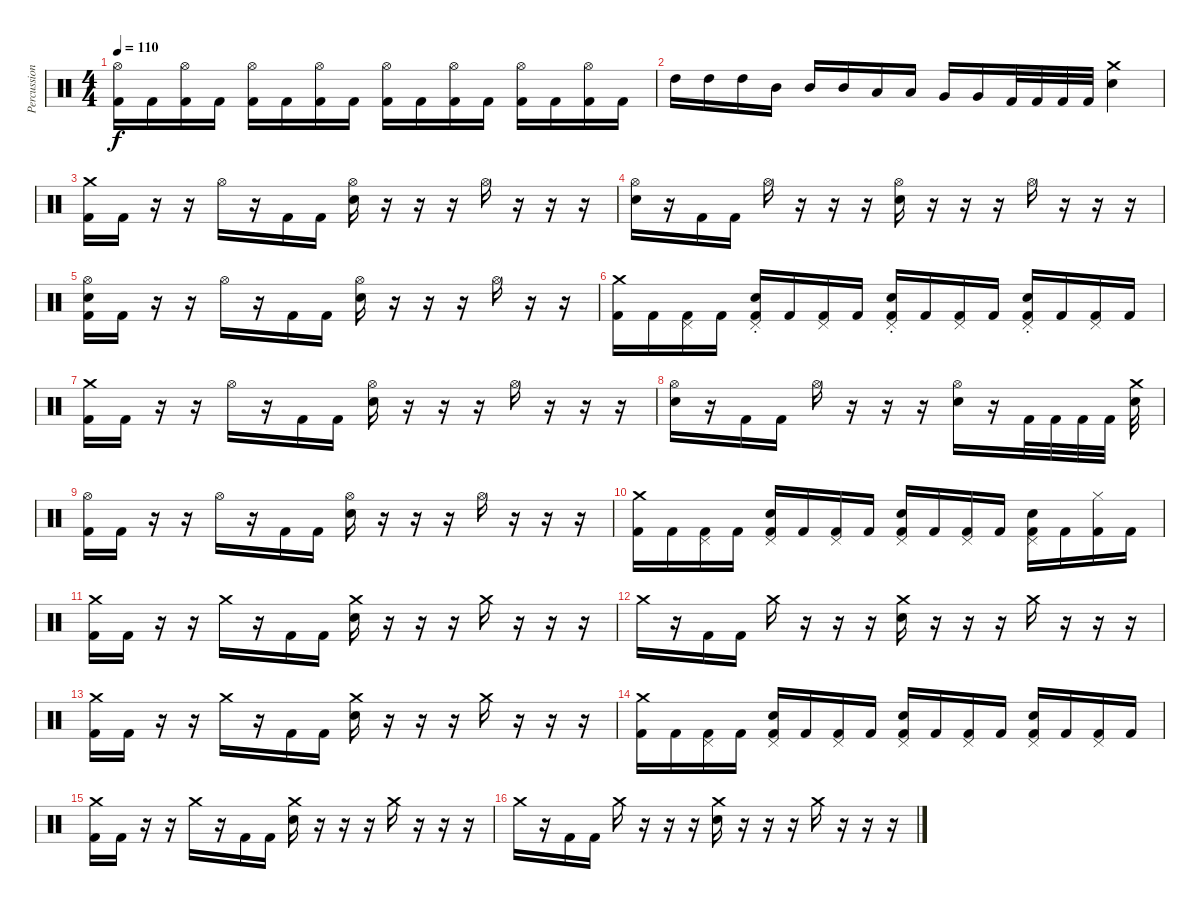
\track ("Percussion (Moose)" "Percussion") {instrument percussion}
\staff {score}
\articulation defaults
\ts (4 4)
\tempo 110
\clef neutral
\ks c
("Hi-Hat (open)" "Kick (hit) 2").16{dy f} "Kick (hit) 2".16 ("Hi-Hat (open)" "Kick (hit) 2").16 "Kick (hit) 2".16 ("Hi-Hat (open)" "Kick (hit) 2").16 "Kick (hit) 2".16 ("Hi-Hat (open)" "Kick (hit) 2").16 "Kick (hit) 2".16 ("Hi-Hat (open)" "Kick (hit) 2").16 "Kick (hit) 2".16 ("Hi-Hat (open)" "Kick (hit) 2").16 "Kick (hit) 2".16 ("Hi-Hat (open)" "Kick (hit) 2").16 "Kick (hit) 2".16 ("Hi-Hat (open)" "Kick (hit) 2").16 "Kick (hit) 2".16 |
"High Tom (hit)".16 "High Tom (hit)".16 "High Tom (hit)".16 "Mid Tom (hit)".16 "Mid Tom (hit)".16 "Mid Tom (hit)".16 "Low Tom (hit)".16 "Low Tom (hit)".16 "Very Low Tom (hit)".16 "Very Low Tom (hit)".16 "Kick (hit) 2".32 "Kick (hit) 2".32 "Kick (hit) 2".32 "Kick (hit) 2".32 ("Crash medium (hit)" "Electric Snare (hit)").4 |
("Crash medium (hit)" "Kick (hit) 2").16 "Kick (hit) 2".16 r.16 r.16 "Hi-Hat (open)".16 r.16 "Kick (hit) 2".16 "Kick (hit) 2".16 ("Hi-Hat (open)" "Electric Snare (hit)").16 r.16 r.16 r.16 "Hi-Hat (open)".16 r.16 r.16 r.16 |
("Hi-Hat (open)" "Electric Snare (hit)").16 r.16 "Kick (hit) 2".16 "Kick (hit) 2".16 "Hi-Hat (open)".16 r.16 r.16 r.16 ("Hi-Hat (open)" "Electric Snare (hit)").16 r.16 r.16 r.16 "Hi-Hat (open)".16 r.16 r.16 r.16 |
("Hi-Hat (open)" "Electric Snare (hit)" "Kick (hit) 2").16 "Kick (hit) 2".16 r.16 r.16 "Hi-Hat (open)".16 r.16 "Kick (hit) 2".16 "Kick (hit) 2".16 ("Hi-Hat (open)" "Electric Snare (hit)").16 r.16 r.16 r.16 "Hi-Hat (open)".16 r.16 r.16 |
("Crash medium (hit)" "Kick (hit) 2").16 "Kick (hit) 2".16 ("Pedal Hi-Hat (hit)" "Kick (hit) 2").16 "Kick (hit) 2".16 ("Pedal Hi-Hat (hit)"{st} "Electric Snare (hit)" "Kick (hit) 2").16 "Kick (hit) 2".16 ("Pedal Hi-Hat (hit)" "Kick (hit) 2").16 "Kick (hit) 2".16 ("Pedal Hi-Hat (hit)"{st} "Electric Snare (hit)" "Kick (hit) 2").16 "Kick (hit) 2".16 ("Pedal Hi-Hat (hit)" "Kick (hit) 2").16 "Kick (hit) 2".16 ("Pedal Hi-Hat (hit)"{st} "Electric Snare (hit)" "Kick (hit) 2").16 "Kick (hit) 2".16 ("Pedal Hi-Hat (hit)" "Kick (hit) 2").16 "Kick (hit) 2".16 |
("Crash medium (hit)" "Kick (hit) 2").16 "Kick (hit) 2".16 r.16 r.16 "Hi-Hat (open)".16 r.16 "Kick (hit) 2".16 "Kick (hit) 2".16 ("Hi-Hat (open)" "Electric Snare (hit)").16 r.16 r.16 r.16 "Hi-Hat (open)".16 r.16 r.16 r.16 |
("Hi-Hat (open)" "Electric Snare (hit)").16 r.16 "Kick (hit) 2".16 "Kick (hit) 2".16 "Hi-Hat (open)".16 r.16 r.16 r.16 ("Hi-Hat (open)" "Electric Snare (hit)").16 r.16 "Kick (hit) 2".32 "Kick (hit) 2".32 "Kick (hit) 2".32 "Kick (hit) 2".32 ("Crash medium (hit)" "Electric Snare (hit)").32 |
("Hi-Hat (open)" "Kick (hit) 2").16 "Kick (hit) 2".16 r.16 r.16 "Hi-Hat (open)".16 r.16 "Kick (hit) 2".16 "Kick (hit) 2".16 ("Hi-Hat (open)" "Electric Snare (hit)").16 r.16 r.16 r.16 "Hi-Hat (open)".16 r.16 r.16 r.16 |
("Crash medium (hit)" "Kick (hit) 2").16 "Kick (hit) 2".16 ("Pedal Hi-Hat (hit)" "Kick (hit) 2").16 "Kick (hit) 2".16 ("Pedal Hi-Hat (hit)" "Electric Snare (hit)" "Kick (hit) 2").16 "Kick (hit) 2".16 ("Pedal Hi-Hat (hit)" "Kick (hit) 2").16 "Kick (hit) 2".16 ("Pedal Hi-Hat (hit)" "Electric Snare (hit)" "Kick (hit) 2").16 "Kick (hit) 2".16 ("Pedal Hi-Hat (hit)" "Kick (hit) 2").16 "Kick (hit) 2".16 ("Pedal Hi-Hat (hit)" "Electric Snare (hit)" "Kick (hit) 2").16 "Kick (hit) 2".16 ("Hi-Hat (closed)" "Kick (hit) 2").16 "Kick (hit) 2".16 |
("Crash medium (hit)" "Kick (hit) 2").16 "Kick (hit) 2".16 r.16 r.16 "Crash medium (hit)".16 r.16 "Kick (hit) 2".16 "Kick (hit) 2".16 ("Crash medium (hit)" "Electric Snare (hit)").16 r.16 r.16 r.16 "Crash medium (hit)".16 r.16 r.16 r.16 |
"Crash medium (hit)".16 r.16 "Kick (hit) 2".16 "Kick (hit) 2".16 "Crash medium (hit)".16 r.16 r.16 r.16 ("Crash medium (hit)" "Electric Snare (hit)").16 r.16 r.16 r.16 "Crash medium (hit)".16 r.16 r.16 r.16 |
("Crash medium (hit)" "Kick (hit) 2").16 "Kick (hit) 2".16 r.16 r.16 "Crash medium (hit)".16 r.16 "Kick (hit) 2".16 "Kick (hit) 2".16 ("Crash medium (hit)" "Electric Snare (hit)").16 r.16 r.16 r.16 "Crash medium (hit)".16 r.16 r.16 r.16 |
("Crash medium (hit)" "Kick (hit) 2").16 "Kick (hit) 2".16 ("Pedal Hi-Hat (hit)" "Kick (hit) 2").16 "Kick (hit) 2".16 ("Pedal Hi-Hat (hit)" "Electric Snare (hit)" "Kick (hit) 2").16 "Kick (hit) 2".16 ("Pedal Hi-Hat (hit)" "Kick (hit) 2").16 "Kick (hit) 2".16 ("Pedal Hi-Hat (hit)" "Electric Snare (hit)" "Kick (hit) 2").16 "Kick (hit) 2".16 ("Pedal Hi-Hat (hit)" "Kick (hit) 2").16 "Kick (hit) 2".16 ("Pedal Hi-Hat (hit)" "Electric Snare (hit)" "Kick (hit) 2").16 "Kick (hit) 2".16 ("Pedal Hi-Hat (hit)" "Kick (hit) 2").16 "Kick (hit) 2".16 |
("Crash medium (hit)" "Kick (hit) 2").16 "Kick (hit) 2".16 r.16 r.16 "Crash medium (hit)".16 r.16 "Kick (hit) 2".16 "Kick (hit) 2".16 ("Crash medium (hit)" "Electric Snare (hit)").16 r.16 r.16 r.16 "Crash medium (hit)".16 r.16 r.16 r.16 |
"Crash medium (hit)".16 r.16 "Kick (hit) 2".16 "Kick (hit) 2".16 "Crash medium (hit)".16 r.16 r.16 r.16 ("Crash medium (hit)" "Electric Snare (hit)").16 r.16 r.16 r.16 "Crash medium (hit)".16 r.16 r.16 r.16
